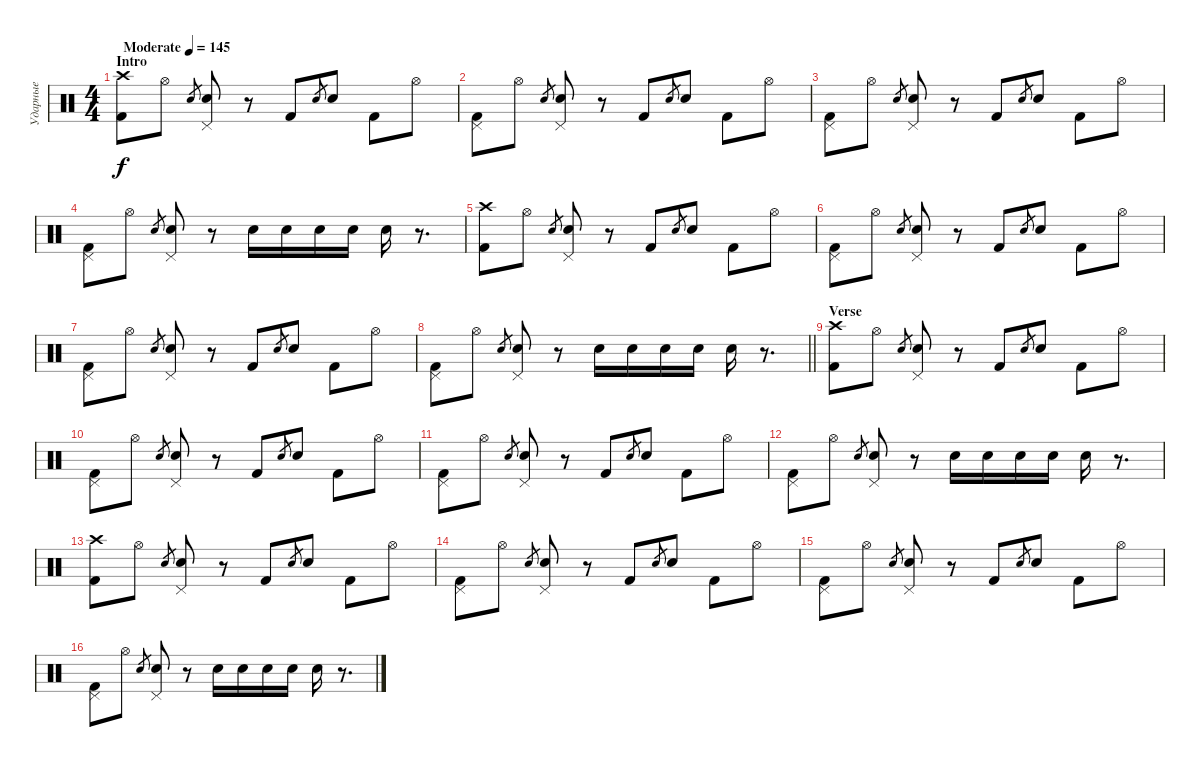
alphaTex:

\track ("Ударные" "Ударные") {instrument percussion}
\staff {score}
\articulation defaults
\ts (4 4)
\section ("" "Intro")
\tempo (145 "Moderate")
\clef neutral
\ks c
("Crash high (hit)" "Kick (hit) 2").8{dy f} "Hi-Hat (open)".8 "Electric Snare (hit)".8{gr} ("Pedal Hi-Hat (hit)" "Electric Snare (hit)").8 r.8 "Kick (hit) 2".8 "Electric Snare (hit)".8{gr} "Electric Snare (hit)".8 "Kick (hit) 2".8 "Hi-Hat (open)".8 |
("Pedal Hi-Hat (hit)" "Kick (hit) 2").8 "Hi-Hat (open)".8 "Electric Snare (hit)".8{gr} ("Pedal Hi-Hat (hit)" "Electric Snare (hit)").8 r.8 "Kick (hit) 2".8 "Electric Snare (hit)".8{gr} "Electric Snare (hit)".8 "Kick (hit) 2".8 "Hi-Hat (open)".8 |
("Pedal Hi-Hat (hit)" "Kick (hit) 2").8 "Hi-Hat (open)".8 "Electric Snare (hit)".8{gr} ("Pedal Hi-Hat (hit)" "Electric Snare (hit)").8 r.8 "Kick (hit) 2".8 "Electric Snare (hit)".8{gr} "Electric Snare (hit)".8 "Kick (hit) 2".8 "Hi-Hat (open)".8 |
("Pedal Hi-Hat (hit)" "Kick (hit) 2").8 "Hi-Hat (open)".8 "Electric Snare (hit)".8{gr} ("Pedal Hi-Hat (hit)" "Electric Snare (hit)").8 r.8 "Electric Snare (hit)".16 "Electric Snare (hit)".16 "Electric Snare (hit)".16 "Electric Snare (hit)".16 "Electric Snare (hit)".16 r.8{d} |
("Crash high (hit)" "Kick (hit) 2").8 "Hi-Hat (open)".8 "Electric Snare (hit)".8{gr} ("Pedal Hi-Hat (hit)" "Electric Snare (hit)").8 r.8 "Kick (hit) 2".8 "Electric Snare (hit)".8{gr} "Electric Snare (hit)".8 "Kick (hit) 2".8 "Hi-Hat (open)".8 |
("Pedal Hi-Hat (hit)" "Kick (hit) 2").8 "Hi-Hat (open)".8 "Electric Snare (hit)".8{gr} ("Pedal Hi-Hat (hit)" "Electric Snare (hit)").8 r.8 "Kick (hit) 2".8 "Electric Snare (hit)".8{gr} "Electric Snare (hit)".8 "Kick (hit) 2".8 "Hi-Hat (open)".8 |
("Pedal Hi-Hat (hit)" "Kick (hit) 2").8 "Hi-Hat (open)".8 "Electric Snare (hit)".8{gr} ("Pedal Hi-Hat (hit)" "Electric Snare (hit)").8 r.8 "Kick (hit) 2".8 "Electric Snare (hit)".8{gr} "Electric Snare (hit)".8 "Kick (hit) 2".8 "Hi-Hat (open)".8 |
\barLineRight lightlight
("Pedal Hi-Hat (hit)" "Kick (hit) 2").8 "Hi-Hat (open)".8 "Electric Snare (hit)".8{gr} ("Pedal Hi-Hat (hit)" "Electric Snare (hit)").8 r.8 "Electric Snare (hit)".16 "Electric Snare (hit)".16 "Electric Snare (hit)".16 "Electric Snare (hit)".16 "Electric Snare (hit)".16 r.8{d} |
\section ("" "Verse")
("Crash high (hit)" "Kick (hit) 2").8 "Hi-Hat (open)".8 "Electric Snare (hit)".8{gr} ("Pedal Hi-Hat (hit)" "Electric Snare (hit)").8 r.8 "Kick (hit) 2".8 "Electric Snare (hit)".8{gr} "Electric Snare (hit)".8 "Kick (hit) 2".8 "Hi-Hat (open)".8 |
("Pedal Hi-Hat (hit)" "Kick (hit) 2").8 "Hi-Hat (open)".8 "Electric Snare (hit)".8{gr} ("Pedal Hi-Hat (hit)" "Electric Snare (hit)").8 r.8 "Kick (hit) 2".8 "Electric Snare (hit)".8{gr} "Electric Snare (hit)".8 "Kick (hit) 2".8 "Hi-Hat (open)".8 |
("Pedal Hi-Hat (hit)" "Kick (hit) 2").8 "Hi-Hat (open)".8 "Electric Snare (hit)".8{gr} ("Pedal Hi-Hat (hit)" "Electric Snare (hit)").8 r.8 "Kick (hit) 2".8 "Electric Snare (hit)".8{gr} "Electric Snare (hit)".8 "Kick (hit) 2".8 "Hi-Hat (open)".8 |
("Pedal Hi-Hat (hit)" "Kick (hit) 2").8 "Hi-Hat (open)".8 "Electric Snare (hit)".8{gr} ("Pedal Hi-Hat (hit)" "Electric Snare (hit)").8 r.8 "Electric Snare (hit)".16 "Electric Snare (hit)".16 "Electric Snare (hit)".16 "Electric Snare (hit)".16 "Electric Snare (hit)".16 r.8{d} |
("Crash high (hit)" "Kick (hit) 2").8 "Hi-Hat (open)".8 "Electric Snare (hit)".8{gr} ("Pedal Hi-Hat (hit)" "Electric Snare (hit)").8 r.8 "Kick (hit) 2".8 "Electric Snare (hit)".8{gr} "Electric Snare (hit)".8 "Kick (hit) 2".8 "Hi-Hat (open)".8 |
("Pedal Hi-Hat (hit)" "Kick (hit) 2").8 "Hi-Hat (open)".8 "Electric Snare (hit)".8{gr} ("Pedal Hi-Hat (hit)" "Electric Snare (hit)").8 r.8 "Kick (hit) 2".8 "Electric Snare (hit)".8{gr} "Electric Snare (hit)".8 "Kick (hit) 2".8 "Hi-Hat (open)".8 |
("Pedal Hi-Hat (hit)" "Kick (hit) 2").8 "Hi-Hat (open)".8 "Electric Snare (hit)".8{gr} ("Pedal Hi-Hat (hit)" "Electric Snare (hit)").8 r.8 "Kick (hit) 2".8 "Electric Snare (hit)".8{gr} "Electric Snare (hit)".8 "Kick (hit) 2".8 "Hi-Hat (open)".8 |
("Pedal Hi-Hat (hit)" "Kick (hit) 2").8 "Hi-Hat (open)".8 "Electric Snare (hit)".8{gr} ("Pedal Hi-Hat (hit)" "Electric Snare (hit)").8 r.8 "Electric Snare (hit)".16 "Electric Snare (hit)".16 "Electric Snare (hit)".16 "Electric Snare (hit)".16 "Electric Snare (hit)".16 r.8{d}
